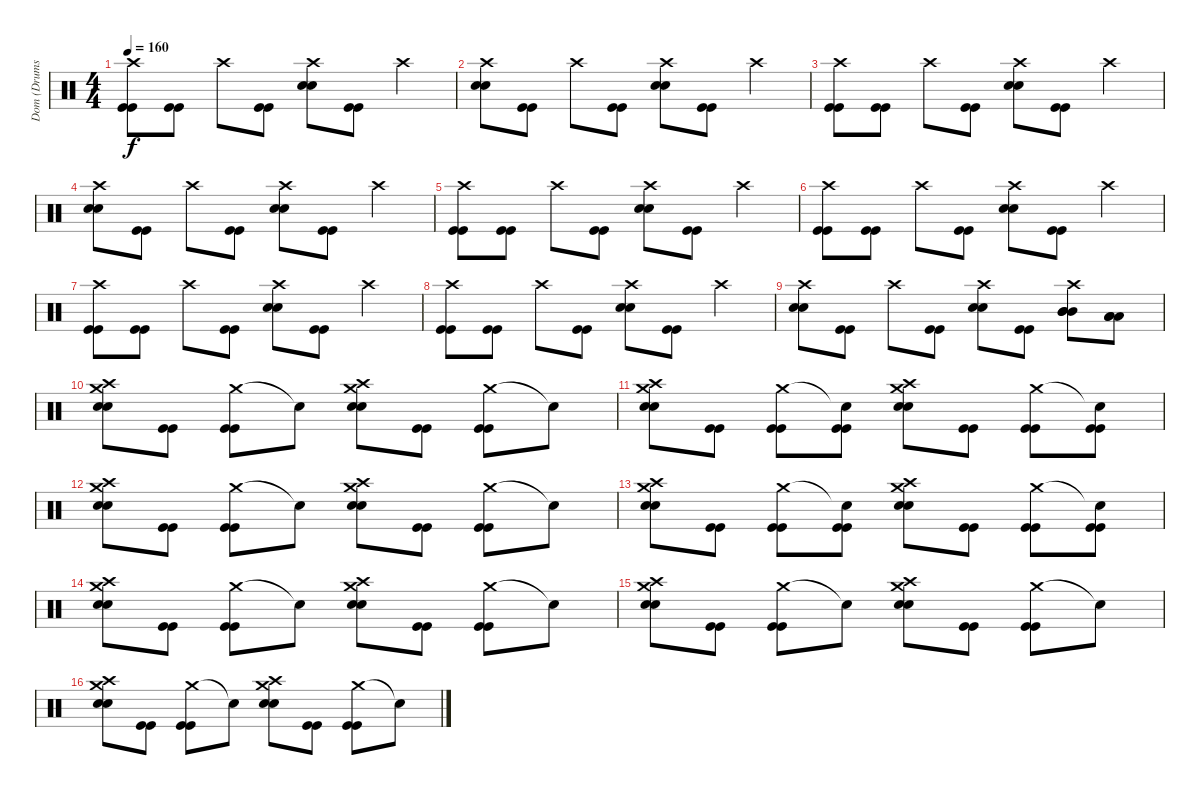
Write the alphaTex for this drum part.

\track ("Dom (Drums)" "Dom (Drums") {instrument percussion}
\staff {score}
\articulation defaults
\ts (4 4)
\tempo 160
\clef neutral
\ks c
("Crash high (hit)" "Kick (hit)" "Kick (hit)").8{dy f} ("Kick (hit)" "Kick (hit)").8 "Crash high (hit)".8 ("Kick (hit)" "Kick (hit)").8 ("Crash high (hit)" "Snare (hit) 2" "Snare (hit) 2").8 ("Kick (hit)" "Kick (hit)").8 "Crash high (hit)".4 |
("Crash high (hit)" "Snare (hit) 2" "Snare (hit) 2").8 ("Kick (hit)" "Kick (hit)").8 "Crash high (hit)".8 ("Kick (hit)" "Kick (hit)").8 ("Crash high (hit)" "Snare (hit) 2" "Snare (hit) 2").8 ("Kick (hit)" "Kick (hit)").8 "Crash high (hit)".4 |
("Crash high (hit)" "Kick (hit)" "Kick (hit)").8 ("Kick (hit)" "Kick (hit)").8 "Crash high (hit)".8 ("Kick (hit)" "Kick (hit)").8 ("Crash high (hit)" "Snare (hit) 2" "Snare (hit) 2").8 ("Kick (hit)" "Kick (hit)").8 "Crash high (hit)".4 |
("Crash high (hit)" "Snare (hit) 2" "Snare (hit) 2").8 ("Kick (hit)" "Kick (hit)").8 "Crash high (hit)".8 ("Kick (hit)" "Kick (hit)").8 ("Crash high (hit)" "Snare (hit) 2" "Snare (hit) 2").8 ("Kick (hit)" "Kick (hit)").8 "Crash high (hit)".4 |
("Crash high (hit)" "Kick (hit)" "Kick (hit)").8 ("Kick (hit)" "Kick (hit)").8 "Crash high (hit)".8 ("Kick (hit)" "Kick (hit)").8 ("Crash high (hit)" "Snare (hit) 2" "Snare (hit) 2").8 ("Kick (hit)" "Kick (hit)").8 "Crash high (hit)".4 |
("Crash high (hit)" "Kick (hit)" "Kick (hit)").8 ("Kick (hit)" "Kick (hit)").8 "Crash high (hit)".8 ("Kick (hit)" "Kick (hit)").8 ("Crash high (hit)" "Snare (hit) 2" "Snare (hit) 2").8 ("Kick (hit)" "Kick (hit)").8 "Crash high (hit)".4 |
("Crash high (hit)" "Kick (hit)" "Kick (hit)").8 ("Kick (hit)" "Kick (hit)").8 "Crash high (hit)".8 ("Kick (hit)" "Kick (hit)").8 ("Crash high (hit)" "Snare (hit) 2" "Snare (hit) 2").8 ("Kick (hit)" "Kick (hit)").8 "Crash high (hit)".4 |
("Crash high (hit)" "Kick (hit)" "Kick (hit)").8 ("Kick (hit)" "Kick (hit)").8 "Crash high (hit)".8 ("Kick (hit)" "Kick (hit)").8 ("Crash high (hit)" "Snare (hit) 2" "Snare (hit) 2").8 ("Kick (hit)" "Kick (hit)").8 "Crash high (hit)".4 |
("Crash high (hit)" "Snare (hit) 2" "Snare (hit) 2").8 ("Kick (hit)" "Kick (hit)").8 "Crash high (hit)".8 ("Kick (hit)" "Kick (hit)").8 ("Crash high (hit)" "Snare (hit) 2" "Snare (hit) 2").8 ("Kick (hit)" "Kick (hit)").8 ("Crash high (hit)" "Mid Tom (hit)" "Mid Tom (hit)" "Mid Tom (hit)").8 ("Low Tom (hit)" "Low Tom (hit)" "Low Tom (hit)").8 |
("Crash medium (hit)" "Crash high (hit)" "Snare (hit) 2" "Snare (hit) 2").8 ("Kick (hit)" "Kick (hit)").8 ("Crash medium (hit)" "Kick (hit)" "Kick (hit)").8 "Snare (hit)"{t}.8 ("Crash medium (hit)" "Crash high (hit)" "Snare (hit) 2" "Snare (hit) 2").8 ("Kick (hit)" "Kick (hit)").8 ("Crash medium (hit)" "Kick (hit)" "Kick (hit)").8 "Snare (hit)"{t}.8 |
("Crash medium (hit)" "Crash high (hit)" "Snare (hit) 2" "Snare (hit) 2").8 ("Kick (hit)" "Kick (hit)").8 ("Crash medium (hit)" "Kick (hit)" "Kick (hit)").8 ("Snare (hit)"{t} "Kick (hit)" "Kick (hit)").8 ("Crash medium (hit)" "Crash high (hit)" "Snare (hit) 2" "Snare (hit) 2").8 ("Kick (hit)" "Kick (hit)").8 ("Crash medium (hit)" "Kick (hit)" "Kick (hit)").8 ("Snare (hit)"{t} "Kick (hit)" "Kick (hit)").8 |
("Crash medium (hit)" "Crash high (hit)" "Snare (hit) 2" "Snare (hit) 2").8 ("Kick (hit)" "Kick (hit)").8 ("Crash medium (hit)" "Kick (hit)" "Kick (hit)").8 "Snare (hit)"{t}.8 ("Crash medium (hit)" "Crash high (hit)" "Snare (hit) 2" "Snare (hit) 2").8 ("Kick (hit)" "Kick (hit)").8 ("Crash medium (hit)" "Kick (hit)" "Kick (hit)").8 "Snare (hit)"{t}.8 |
("Crash medium (hit)" "Crash high (hit)" "Snare (hit) 2" "Snare (hit) 2").8 ("Kick (hit)" "Kick (hit)").8 ("Crash medium (hit)" "Kick (hit)" "Kick (hit)").8 ("Snare (hit)"{t} "Kick (hit)" "Kick (hit)").8 ("Crash medium (hit)" "Crash high (hit)" "Snare (hit) 2" "Snare (hit) 2").8 ("Kick (hit)" "Kick (hit)").8 ("Crash medium (hit)" "Kick (hit)" "Kick (hit)").8 ("Snare (hit)"{t} "Kick (hit)" "Kick (hit)").8 |
("Crash medium (hit)" "Crash high (hit)" "Snare (hit) 2" "Snare (hit) 2").8 ("Kick (hit)" "Kick (hit)").8 ("Crash medium (hit)" "Kick (hit)" "Kick (hit)").8 "Snare (hit)"{t}.8 ("Crash medium (hit)" "Crash high (hit)" "Snare (hit) 2" "Snare (hit) 2").8 ("Kick (hit)" "Kick (hit)").8 ("Crash medium (hit)" "Kick (hit)" "Kick (hit)").8 "Snare (hit)"{t}.8 |
("Crash medium (hit)" "Crash high (hit)" "Snare (hit) 2" "Snare (hit) 2").8 ("Kick (hit)" "Kick (hit)").8 ("Crash medium (hit)" "Kick (hit)" "Kick (hit)").8 "Snare (hit)"{t}.8 ("Crash medium (hit)" "Crash high (hit)" "Snare (hit) 2" "Snare (hit) 2").8 ("Kick (hit)" "Kick (hit)").8 ("Crash medium (hit)" "Kick (hit)" "Kick (hit)").8 "Snare (hit)"{t}.8 |
("Crash medium (hit)" "Crash high (hit)" "Snare (hit) 2" "Snare (hit) 2").8 ("Kick (hit)" "Kick (hit)").8 ("Crash medium (hit)" "Kick (hit)" "Kick (hit)").8 "Snare (hit)"{t}.8 ("Crash medium (hit)" "Crash high (hit)" "Snare (hit) 2" "Snare (hit) 2").8 ("Kick (hit)" "Kick (hit)").8 ("Crash medium (hit)" "Kick (hit)" "Kick (hit)").8 "Snare (hit)"{t}.8
